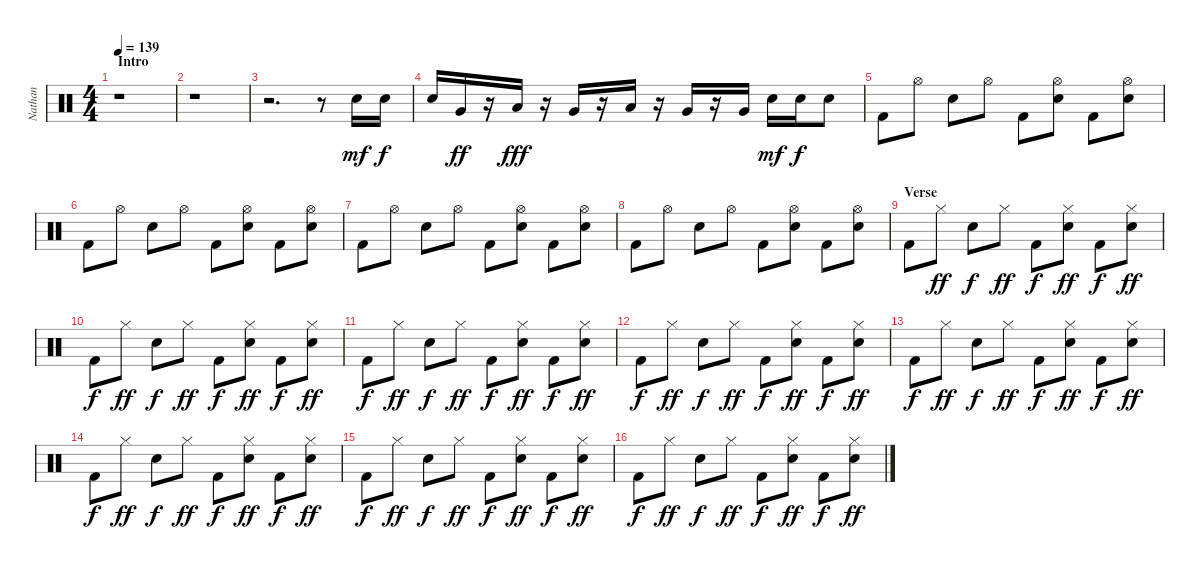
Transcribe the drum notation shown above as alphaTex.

\track ("Nathan" "Nathan") {instrument percussion}
\staff {score}
\articulation defaults
\ts (4 4)
\section ("" " Intro")
\tempo 139
\clef neutral
\ks c
r.1{dy mf} |
r.1 |
r.2{d} r.8 "Electric Snare (hit)".16 "Electric Snare (hit)".16{dy f} |
"Electric Snare (hit)".16 "Very Low Tom (hit)".16{dy ff} r.16 "Low Tom (hit)".16{dy fff} r.16 "Very Low Tom (hit)".16 r.16 "Low Tom (hit)".16 r.16 "Very Low Tom (hit)".16 r.16 "Very Low Tom (hit)".16 "Electric Snare (hit)".16{dy mf} "Electric Snare (hit)".16{dy f} "Electric Snare (hit)".8 |
"Kick (hit) 2".8 "Hi-Hat (open)".8 "Electric Snare (hit)".8 "Hi-Hat (open)".8 "Kick (hit) 2".8 ("Hi-Hat (open)" "Electric Snare (hit)").8 "Kick (hit) 2".8 ("Hi-Hat (open)" "Electric Snare (hit)").8 |
"Kick (hit) 2".8 "Hi-Hat (open)".8 "Electric Snare (hit)".8 "Hi-Hat (open)".8 "Kick (hit) 2".8 ("Hi-Hat (open)" "Electric Snare (hit)").8 "Kick (hit) 2".8 ("Hi-Hat (open)" "Electric Snare (hit)").8 |
"Kick (hit) 2".8 "Hi-Hat (open)".8 "Electric Snare (hit)".8 "Hi-Hat (open)".8 "Kick (hit) 2".8 ("Hi-Hat (open)" "Electric Snare (hit)").8 "Kick (hit) 2".8 ("Hi-Hat (open)" "Electric Snare (hit)").8 |
"Kick (hit) 2".8 "Hi-Hat (open)".8 "Electric Snare (hit)".8 "Hi-Hat (open)".8 "Kick (hit) 2".8 ("Hi-Hat (open)" "Electric Snare (hit)").8 "Kick (hit) 2".8 ("Hi-Hat (open)" "Electric Snare (hit)").8 |
\section ("" "Verse")
"Kick (hit) 2".8 "Hi-Hat (closed)".8{dy ff} "Electric Snare (hit)".8{dy f} "Hi-Hat (closed)".8{dy ff} "Kick (hit) 2".8{dy f} ("Hi-Hat (closed)" "Electric Snare (hit)").8{dy ff} "Kick (hit) 2".8{dy f} ("Hi-Hat (closed)" "Electric Snare (hit)").8{dy ff} |
"Kick (hit) 2".8{dy f} "Hi-Hat (closed)".8{dy ff} "Electric Snare (hit)".8{dy f} "Hi-Hat (closed)".8{dy ff} "Kick (hit) 2".8{dy f} ("Hi-Hat (closed)" "Electric Snare (hit)").8{dy ff} "Kick (hit) 2".8{dy f} ("Hi-Hat (closed)" "Electric Snare (hit)").8{dy ff} |
"Kick (hit) 2".8{dy f} "Hi-Hat (closed)".8{dy ff} "Electric Snare (hit)".8{dy f} "Hi-Hat (closed)".8{dy ff} "Kick (hit) 2".8{dy f} ("Hi-Hat (closed)" "Electric Snare (hit)").8{dy ff} "Kick (hit) 2".8{dy f} ("Hi-Hat (closed)" "Electric Snare (hit)").8{dy ff} |
"Kick (hit) 2".8{dy f} "Hi-Hat (closed)".8{dy ff} "Electric Snare (hit)".8{dy f} "Hi-Hat (closed)".8{dy ff} "Kick (hit) 2".8{dy f} ("Hi-Hat (closed)" "Electric Snare (hit)").8{dy ff} "Kick (hit) 2".8{dy f} ("Hi-Hat (closed)" "Electric Snare (hit)").8{dy ff} |
"Kick (hit) 2".8{dy f} "Hi-Hat (closed)".8{dy ff} "Electric Snare (hit)".8{dy f} "Hi-Hat (closed)".8{dy ff} "Kick (hit) 2".8{dy f} ("Hi-Hat (closed)" "Electric Snare (hit)").8{dy ff} "Kick (hit) 2".8{dy f} ("Hi-Hat (closed)" "Electric Snare (hit)").8{dy ff} |
"Kick (hit) 2".8{dy f} "Hi-Hat (closed)".8{dy ff} "Electric Snare (hit)".8{dy f} "Hi-Hat (closed)".8{dy ff} "Kick (hit) 2".8{dy f} ("Hi-Hat (closed)" "Electric Snare (hit)").8{dy ff} "Kick (hit) 2".8{dy f} ("Hi-Hat (closed)" "Electric Snare (hit)").8{dy ff} |
"Kick (hit) 2".8{dy f} "Hi-Hat (closed)".8{dy ff} "Electric Snare (hit)".8{dy f} "Hi-Hat (closed)".8{dy ff} "Kick (hit) 2".8{dy f} ("Hi-Hat (closed)" "Electric Snare (hit)").8{dy ff} "Kick (hit) 2".8{dy f} ("Hi-Hat (closed)" "Electric Snare (hit)").8{dy ff} |
"Kick (hit) 2".8{dy f} "Hi-Hat (closed)".8{dy ff} "Electric Snare (hit)".8{dy f} "Hi-Hat (closed)".8{dy ff} "Kick (hit) 2".8{dy f} ("Hi-Hat (closed)" "Electric Snare (hit)").8{dy ff} "Kick (hit) 2".8{dy f} ("Hi-Hat (closed)" "Electric Snare (hit)").8{dy ff}
